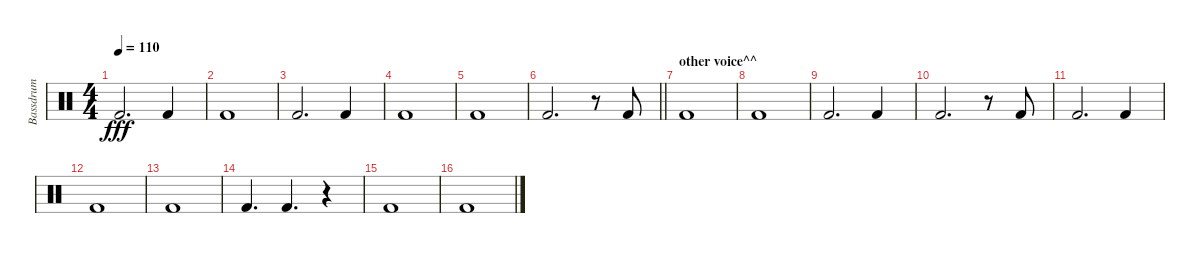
\track ("Bassdrum" "Bassdrum") {instrument percussion}
\staff {score}
\articulation defaults
\ts (4 4)
\tempo 110
\clef neutral
\ks c "Kick (hit) 2".2{d dy fff} "Kick (hit) 2".4
|
"Kick (hit) 2".1 |
"Kick (hit) 2".2{d} "Kick (hit) 2".4 |
"Kick (hit) 2".1 |
"Kick (hit) 2".1 |
\barLineRight lightlight "Kick (hit) 2".2{d}
r.8 "Kick (hit) 2".8 |
\section ("" "other voice^^")
"Kick (hit) 2".1 |
"Kick (hit) 2".1 |
"Kick (hit) 2".2{d} "Kick (hit) 2".4 |
"Kick (hit) 2".2{d} r.8 "Kick (hit) 2".8 |
"Kick (hit) 2".2{d} "Kick (hit) 2".4 |
"Kick (hit) 2".1 |
"Kick (hit) 2".1 |
"Kick (hit) 2".4{d} "Kick (hit) 2".4{d} r.4 |
"Kick (hit) 2".1 |
"Kick (hit) 2".1
